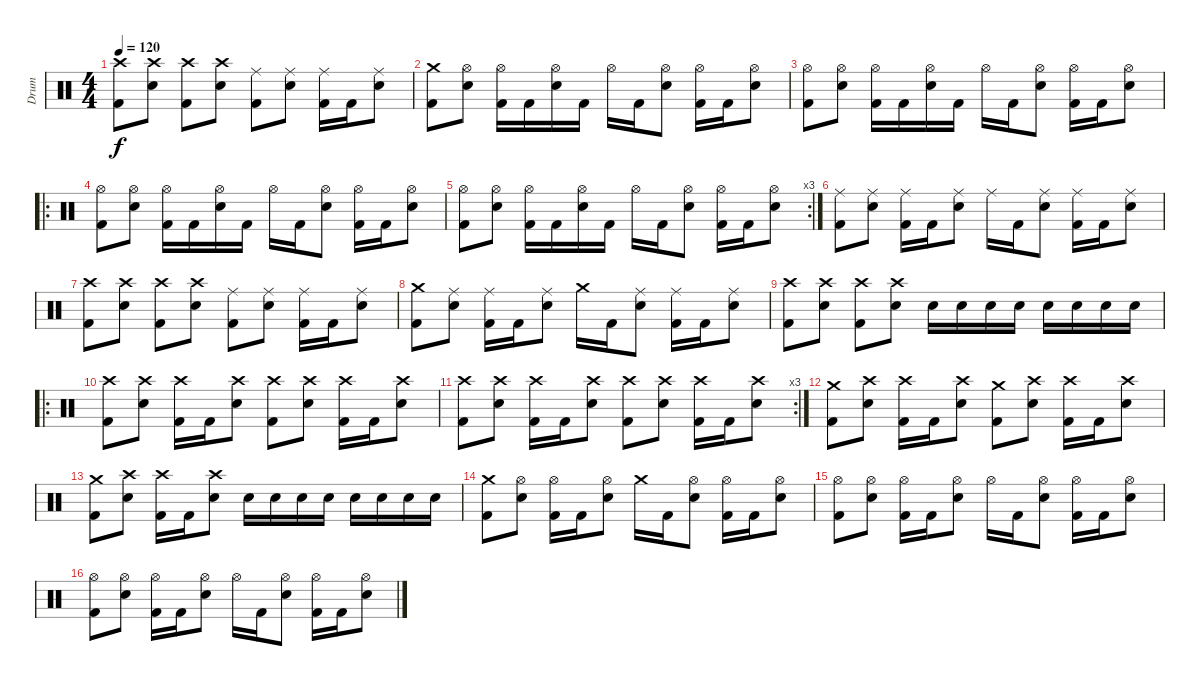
\track ("Drum" "Drum") {instrument percussion}
\staff {score}
\articulation defaults
\ts (4 4)
\tempo 120
\clef neutral
\ks c
("Crash high (hit)" "Kick (hit) 2").8{dy f} ("Crash high (hit)" "Electric Snare (hit)").8 ("Crash high (hit)" "Kick (hit) 2").8 ("Crash high (hit)" "Electric Snare (hit)").8 ("Ride (middle)" "Kick (hit) 2").8 ("Ride (middle)" "Electric Snare (hit)").8 ("Ride (middle)" "Kick (hit) 2").16 "Kick (hit) 2".16 ("Ride (middle)" "Electric Snare (hit)").8 |
("Crash medium (hit)" "Kick (hit) 2").8 ("Hi-Hat (open)" "Electric Snare (hit)").8 ("Hi-Hat (open)" "Kick (hit) 2").16 "Kick (hit) 2".16 ("Hi-Hat (open)" "Electric Snare (hit)").16 "Kick (hit) 2".16 "Hi-Hat (open)".16 "Kick (hit) 2".16 ("Hi-Hat (open)" "Electric Snare (hit)").8 ("Hi-Hat (open)" "Kick (hit) 2").16 "Kick (hit) 2".16 ("Hi-Hat (open)" "Electric Snare (hit)").8 |
("Hi-Hat (open)" "Kick (hit) 2").8 ("Hi-Hat (open)" "Electric Snare (hit)").8 ("Hi-Hat (open)" "Kick (hit) 2").16 "Kick (hit) 2".16 ("Hi-Hat (open)" "Electric Snare (hit)").16 "Kick (hit) 2".16 "Hi-Hat (open)".16 "Kick (hit) 2".16 ("Hi-Hat (open)" "Electric Snare (hit)").8 ("Hi-Hat (open)" "Kick (hit) 2").16 "Kick (hit) 2".16 ("Hi-Hat (open)" "Electric Snare (hit)").8 |
\ro
("Hi-Hat (open)" "Kick (hit) 2").8 ("Hi-Hat (open)" "Electric Snare (hit)").8 ("Hi-Hat (open)" "Kick (hit) 2").16 "Kick (hit) 2".16 ("Hi-Hat (open)" "Electric Snare (hit)").16 "Kick (hit) 2".16 "Hi-Hat (open)".16 "Kick (hit) 2".16 ("Hi-Hat (open)" "Electric Snare (hit)").8 ("Hi-Hat (open)" "Kick (hit) 2").16 "Kick (hit) 2".16 ("Hi-Hat (open)" "Electric Snare (hit)").8 |
\rc 3
("Hi-Hat (open)" "Kick (hit) 2").8 ("Hi-Hat (open)" "Electric Snare (hit)").8 ("Hi-Hat (open)" "Kick (hit) 2").16 "Kick (hit) 2".16 ("Hi-Hat (open)" "Electric Snare (hit)").16 "Kick (hit) 2".16 "Hi-Hat (open)".16 "Kick (hit) 2".16 ("Hi-Hat (open)" "Electric Snare (hit)").8 ("Hi-Hat (open)" "Kick (hit) 2").16 "Kick (hit) 2".16 ("Hi-Hat (open)" "Electric Snare (hit)").8 |
("Ride (middle)" "Kick (hit) 2").8 ("Ride (middle)" "Electric Snare (hit)").8 ("Ride (middle)" "Kick (hit) 2").16 "Kick (hit) 2".16 ("Ride (middle)" "Electric Snare (hit)").8 "Ride (middle)".16 "Kick (hit) 2".16 ("Ride (middle)" "Electric Snare (hit)").8 ("Ride (middle)" "Kick (hit) 2").16 "Kick (hit) 2".16 ("Ride (middle)" "Electric Snare (hit)").8 |
("Crash high (hit)" "Kick (hit) 2").8 ("Crash high (hit)" "Electric Snare (hit)").8 ("Crash high (hit)" "Kick (hit) 2").8 ("Crash high (hit)" "Electric Snare (hit)").8 ("Ride (middle)" "Kick (hit) 2").8 ("Ride (middle)" "Electric Snare (hit)").8 ("Ride (middle)" "Kick (hit) 2").16 "Kick (hit) 2".16 ("Ride (middle)" "Electric Snare (hit)").8 |
("Crash medium (hit)" "Kick (hit) 2").8 ("Ride (middle)" "Electric Snare (hit)").8 ("Ride (middle)" "Kick (hit) 2").16 "Kick (hit) 2".16 ("Ride (middle)" "Electric Snare (hit)").8 "Crash medium (hit)".16 "Kick (hit) 2".16 ("Ride (middle)" "Electric Snare (hit)").8 ("Ride (middle)" "Kick (hit) 2").16 "Kick (hit) 2".16 ("Ride (middle)" "Electric Snare (hit)").8 |
("Crash high (hit)" "Kick (hit) 2").8 ("Crash high (hit)" "Electric Snare (hit)").8 ("Crash high (hit)" "Kick (hit) 2").8 ("Crash high (hit)" "Electric Snare (hit)").8 "Electric Snare (hit)".16 "Electric Snare (hit)".16 "Electric Snare (hit)".16 "Electric Snare (hit)".16 "Electric Snare (hit)".16 "Electric Snare (hit)".16 "Electric Snare (hit)".16 "Electric Snare (hit)".16 |
\ro
("Crash high (hit)" "Kick (hit) 2").8 ("Crash high (hit)" "Electric Snare (hit)").8 ("Crash high (hit)" "Kick (hit) 2").16 "Kick (hit) 2".16 ("Crash high (hit)" "Electric Snare (hit)").8 ("Crash high (hit)" "Kick (hit) 2").8 ("Crash high (hit)" "Electric Snare (hit)").8 ("Crash high (hit)" "Kick (hit) 2").16 "Kick (hit) 2".16 ("Crash high (hit)" "Electric Snare (hit)").8 |
\rc 3
("Crash high (hit)" "Kick (hit) 2").8 ("Crash high (hit)" "Electric Snare (hit)").8 ("Crash high (hit)" "Kick (hit) 2").16 "Kick (hit) 2".16 ("Crash high (hit)" "Electric Snare (hit)").8 ("Crash high (hit)" "Kick (hit) 2").8 ("Crash high (hit)" "Electric Snare (hit)").8 ("Crash high (hit)" "Kick (hit) 2").16 "Kick (hit) 2".16 ("Crash high (hit)" "Electric Snare (hit)").8 |
("Crash medium (hit)" "Kick (hit) 2").8 ("Crash high (hit)" "Electric Snare (hit)").8 ("Crash high (hit)" "Kick (hit) 2").16 "Kick (hit) 2".16 ("Crash high (hit)" "Electric Snare (hit)").8 ("Crash medium (hit)" "Kick (hit) 2").8 ("Crash high (hit)" "Electric Snare (hit)").8 ("Crash high (hit)" "Kick (hit) 2").16 "Kick (hit) 2".16 ("Crash high (hit)" "Electric Snare (hit)").8 |
("Crash medium (hit)" "Kick (hit) 2").8 ("Crash high (hit)" "Electric Snare (hit)").8 ("Crash high (hit)" "Kick (hit) 2").16 "Kick (hit) 2".16 ("Crash high (hit)" "Electric Snare (hit)").8 "Electric Snare (hit)".16 "Electric Snare (hit)".16 "Electric Snare (hit)".16 "Electric Snare (hit)".16 "Electric Snare (hit)".16 "Electric Snare (hit)".16 "Electric Snare (hit)".16 "Electric Snare (hit)".16 |
("Crash medium (hit)" "Kick (hit) 2").8 ("Hi-Hat (open)" "Electric Snare (hit)").8 ("Hi-Hat (open)" "Kick (hit) 2").16 "Kick (hit) 2".16 ("Hi-Hat (open)" "Electric Snare (hit)").8 "Crash medium (hit)".16 "Kick (hit) 2".16 ("Hi-Hat (open)" "Electric Snare (hit)").8 ("Hi-Hat (open)" "Kick (hit) 2").16 "Kick (hit) 2".16 ("Hi-Hat (open)" "Electric Snare (hit)").8 |
("Hi-Hat (open)" "Kick (hit) 2").8 ("Hi-Hat (open)" "Electric Snare (hit)").8 ("Hi-Hat (open)" "Kick (hit) 2").16 "Kick (hit) 2".16 ("Hi-Hat (open)" "Electric Snare (hit)").8 "Hi-Hat (open)".16 "Kick (hit) 2".16 ("Hi-Hat (open)" "Electric Snare (hit)").8 ("Hi-Hat (open)" "Kick (hit) 2").16 "Kick (hit) 2".16 ("Hi-Hat (open)" "Electric Snare (hit)").8 |
("Hi-Hat (open)" "Kick (hit) 2").8 ("Hi-Hat (open)" "Electric Snare (hit)").8 ("Hi-Hat (open)" "Kick (hit) 2").16 "Kick (hit) 2".16 ("Hi-Hat (open)" "Electric Snare (hit)").8 "Hi-Hat (open)".16 "Kick (hit) 2".16 ("Hi-Hat (open)" "Electric Snare (hit)").8 ("Hi-Hat (open)" "Kick (hit) 2").16 "Kick (hit) 2".16 ("Hi-Hat (open)" "Electric Snare (hit)").8
